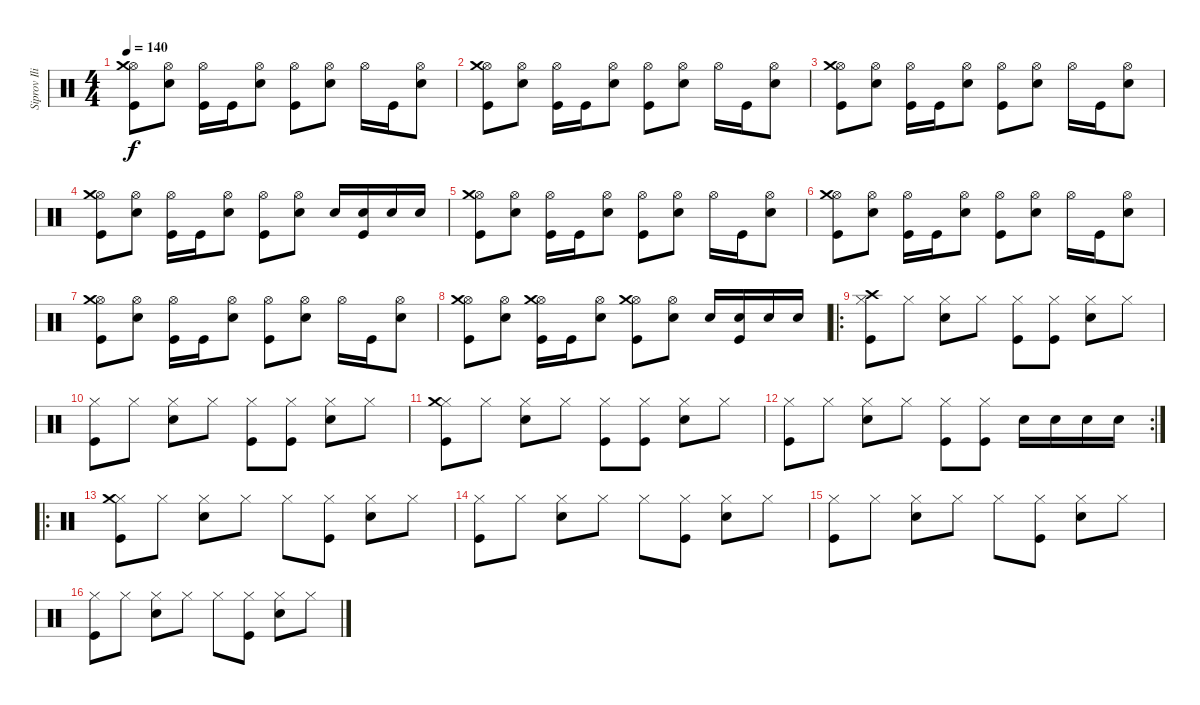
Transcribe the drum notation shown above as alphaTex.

\track ("Siprov Iliya (DRUMS)" "Siprov Ili") {instrument percussion}
\staff {score}
\articulation defaults
\ts (4 4)
\tempo 140
\clef neutral
\ks c
("Hi-Hat (open)" "Crash medium (hit)" "Kick (hit)").8{dy f} ("Hi-Hat (open)" "Electric Snare (hit)").8 ("Hi-Hat (open)" "Kick (hit)").16 "Kick (hit)".16 ("Hi-Hat (open)" "Electric Snare (hit)").8 ("Hi-Hat (open)" "Kick (hit)").8 ("Hi-Hat (open)" "Electric Snare (hit)").8 "Hi-Hat (open)".16 "Kick (hit)".16 ("Hi-Hat (open)" "Electric Snare (hit)").8 |
("Hi-Hat (open)" "Crash medium (hit)" "Kick (hit)").8 ("Hi-Hat (open)" "Electric Snare (hit)").8 ("Hi-Hat (open)" "Kick (hit)").16 "Kick (hit)".16 ("Hi-Hat (open)" "Electric Snare (hit)").8 ("Hi-Hat (open)" "Kick (hit)").8 ("Hi-Hat (open)" "Electric Snare (hit)").8 "Hi-Hat (open)".16 "Kick (hit)".16 ("Hi-Hat (open)" "Electric Snare (hit)").8 |
("Hi-Hat (open)" "Crash medium (hit)" "Kick (hit)").8 ("Hi-Hat (open)" "Electric Snare (hit)").8 ("Hi-Hat (open)" "Kick (hit)").16 "Kick (hit)".16 ("Hi-Hat (open)" "Electric Snare (hit)").8 ("Hi-Hat (open)" "Kick (hit)").8 ("Hi-Hat (open)" "Electric Snare (hit)").8 "Hi-Hat (open)".16 "Kick (hit)".16 ("Hi-Hat (open)" "Electric Snare (hit)").8 |
("Hi-Hat (open)" "Crash medium (hit)" "Kick (hit)").8 ("Hi-Hat (open)" "Electric Snare (hit)").8 ("Hi-Hat (open)" "Kick (hit)").16 "Kick (hit)".16 ("Hi-Hat (open)" "Electric Snare (hit)").8 ("Hi-Hat (open)" "Kick (hit)").8 ("Hi-Hat (open)" "Electric Snare (hit)").8 "Electric Snare (hit)".16 ("Electric Snare (hit)" "Kick (hit)").16 "Electric Snare (hit)".16 "Electric Snare (hit)".16 |
("Hi-Hat (open)" "Crash medium (hit)" "Kick (hit)").8 ("Hi-Hat (open)" "Electric Snare (hit)").8 ("Hi-Hat (open)" "Kick (hit)").16 "Kick (hit)".16 ("Hi-Hat (open)" "Electric Snare (hit)").8 ("Hi-Hat (open)" "Kick (hit)").8 ("Hi-Hat (open)" "Electric Snare (hit)").8 "Hi-Hat (open)".16 "Kick (hit)".16 ("Hi-Hat (open)" "Electric Snare (hit)").8 |
("Hi-Hat (open)" "Crash medium (hit)" "Kick (hit)").8 ("Hi-Hat (open)" "Electric Snare (hit)").8 ("Hi-Hat (open)" "Kick (hit)").16 "Kick (hit)".16 ("Hi-Hat (open)" "Electric Snare (hit)").8 ("Hi-Hat (open)" "Kick (hit)").8 ("Hi-Hat (open)" "Electric Snare (hit)").8 "Hi-Hat (open)".16 "Kick (hit)".16 ("Hi-Hat (open)" "Electric Snare (hit)").8 |
("Hi-Hat (open)" "Crash medium (hit)" "Kick (hit)").8 ("Hi-Hat (open)" "Electric Snare (hit)").8 ("Hi-Hat (open)" "Kick (hit)").16 "Kick (hit)".16 ("Hi-Hat (open)" "Electric Snare (hit)").8 ("Hi-Hat (open)" "Kick (hit)").8 ("Hi-Hat (open)" "Electric Snare (hit)").8 "Hi-Hat (open)".16 "Kick (hit)".16 ("Hi-Hat (open)" "Electric Snare (hit)").8 |
("Hi-Hat (open)" "Crash medium (hit)" "Kick (hit)").8 ("Hi-Hat (open)" "Electric Snare (hit)").8 ("Hi-Hat (open)" "Crash medium (hit)" "Kick (hit)").16 "Kick (hit)".16 ("Hi-Hat (open)" "Electric Snare (hit)").8 ("Hi-Hat (open)" "Crash medium (hit)" "Kick (hit)").8 ("Hi-Hat (open)" "Electric Snare (hit)").8 "Electric Snare (hit)".16 ("Electric Snare (hit)" "Kick (hit)").16 "Electric Snare (hit)".16 "Electric Snare (hit)".16 |
\ro
("Hi-Hat (closed)" "Crash high (hit)" "Kick (hit)").8 "Hi-Hat (closed)".8 ("Hi-Hat (closed)" "Electric Snare (hit)").8 "Hi-Hat (closed)".8 ("Hi-Hat (closed)" "Kick (hit)").8 ("Hi-Hat (closed)" "Kick (hit)").8 ("Hi-Hat (closed)" "Electric Snare (hit)").8 "Hi-Hat (closed)".8 |
("Hi-Hat (closed)" "Kick (hit)").8 "Hi-Hat (closed)".8 ("Hi-Hat (closed)" "Electric Snare (hit)").8 "Hi-Hat (closed)".8 ("Hi-Hat (closed)" "Kick (hit)").8 ("Hi-Hat (closed)" "Kick (hit)").8 ("Hi-Hat (closed)" "Electric Snare (hit)").8 "Hi-Hat (closed)".8 |
("Hi-Hat (closed)" "Crash medium (hit)" "Kick (hit)").8 "Hi-Hat (closed)".8 ("Hi-Hat (closed)" "Electric Snare (hit)").8 "Hi-Hat (closed)".8 ("Hi-Hat (closed)" "Kick (hit)").8 ("Hi-Hat (closed)" "Kick (hit)").8 ("Hi-Hat (closed)" "Electric Snare (hit)").8 "Hi-Hat (closed)".8 |
\rc 2
("Hi-Hat (closed)" "Kick (hit)").8 "Hi-Hat (closed)".8 ("Hi-Hat (closed)" "Electric Snare (hit)").8 "Hi-Hat (closed)".8 ("Hi-Hat (closed)" "Kick (hit)").8 ("Hi-Hat (closed)" "Kick (hit)").8 "Electric Snare (hit)".16 "Electric Snare (hit)".16 "Electric Snare (hit)".16 "Electric Snare (hit)".16 |
\ro
("Hi-Hat (closed)" "Crash medium (hit)" "Kick (hit)").8 "Hi-Hat (closed)".8 ("Hi-Hat (closed)" "Electric Snare (hit)").8 "Hi-Hat (closed)".8 "Hi-Hat (closed)".8 ("Hi-Hat (closed)" "Kick (hit)").8 ("Hi-Hat (closed)" "Electric Snare (hit)").8 "Hi-Hat (closed)".8 |
("Hi-Hat (closed)" "Kick (hit)").8 "Hi-Hat (closed)".8 ("Hi-Hat (closed)" "Electric Snare (hit)").8 "Hi-Hat (closed)".8 "Hi-Hat (closed)".8 ("Hi-Hat (closed)" "Kick (hit)").8 ("Hi-Hat (closed)" "Electric Snare (hit)").8 "Hi-Hat (closed)".8 |
("Hi-Hat (closed)" "Kick (hit)").8 "Hi-Hat (closed)".8 ("Hi-Hat (closed)" "Electric Snare (hit)").8 "Hi-Hat (closed)".8 "Hi-Hat (closed)".8 ("Hi-Hat (closed)" "Kick (hit)").8 ("Hi-Hat (closed)" "Electric Snare (hit)").8 "Hi-Hat (closed)".8 |
("Hi-Hat (closed)" "Kick (hit)").8 "Hi-Hat (closed)".8 ("Hi-Hat (closed)" "Electric Snare (hit)").8 "Hi-Hat (closed)".8 "Hi-Hat (closed)".8 ("Hi-Hat (closed)" "Kick (hit)").8 ("Hi-Hat (closed)" "Electric Snare (hit)").8 "Hi-Hat (closed)".8
